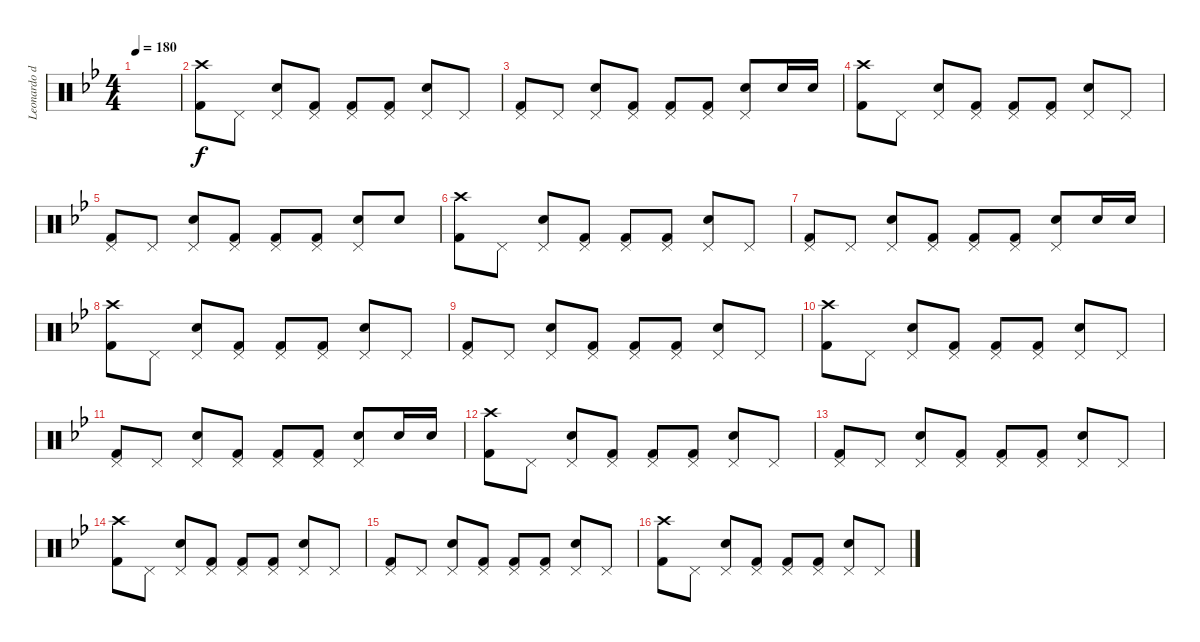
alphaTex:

\track ("Leonardo de Cecco" "Leonardo d") {instrument percussion}
\staff {score}
\articulation defaults
\ts (4 4)
\tempo 180
\clef neutral
\ks bb
|
("Crash high (hit)" "Kick (hit) 2").8 "Pedal Hi-Hat (hit)".8 ("Pedal Hi-Hat (hit)" "Snare (hit) 2").8 ("Pedal Hi-Hat (hit)" "Kick (hit) 2").8 ("Pedal Hi-Hat (hit)" "Kick (hit) 2").8 ("Pedal Hi-Hat (hit)" "Kick (hit) 2").8 ("Pedal Hi-Hat (hit)" "Snare (hit) 2").8 "Pedal Hi-Hat (hit)".8 |
("Pedal Hi-Hat (hit)" "Kick (hit) 2").8 "Pedal Hi-Hat (hit)".8 ("Pedal Hi-Hat (hit)" "Snare (hit) 2").8 ("Pedal Hi-Hat (hit)" "Kick (hit) 2").8 ("Pedal Hi-Hat (hit)" "Kick (hit) 2").8 ("Pedal Hi-Hat (hit)" "Kick (hit) 2").8 ("Pedal Hi-Hat (hit)" "Snare (hit) 2").8 "Snare (hit) 2".16 "Snare (hit) 2".16 |
("Crash high (hit)" "Kick (hit) 2").8 "Pedal Hi-Hat (hit)".8 ("Pedal Hi-Hat (hit)" "Snare (hit) 2").8 ("Pedal Hi-Hat (hit)" "Kick (hit) 2").8 ("Pedal Hi-Hat (hit)" "Kick (hit) 2").8 ("Pedal Hi-Hat (hit)" "Kick (hit) 2").8 ("Pedal Hi-Hat (hit)" "Snare (hit) 2").8 "Pedal Hi-Hat (hit)".8 |
("Pedal Hi-Hat (hit)" "Kick (hit) 2").8 "Pedal Hi-Hat (hit)".8 ("Pedal Hi-Hat (hit)" "Snare (hit) 2").8 ("Pedal Hi-Hat (hit)" "Kick (hit) 2").8 ("Pedal Hi-Hat (hit)" "Kick (hit) 2").8 ("Pedal Hi-Hat (hit)" "Kick (hit) 2").8 ("Pedal Hi-Hat (hit)" "Snare (hit) 2").8 "Snare (hit) 2".8 |
("Crash high (hit)" "Kick (hit) 2").8 "Pedal Hi-Hat (hit)".8 ("Pedal Hi-Hat (hit)" "Snare (hit) 2").8 ("Pedal Hi-Hat (hit)" "Kick (hit) 2").8 ("Pedal Hi-Hat (hit)" "Kick (hit) 2").8 ("Pedal Hi-Hat (hit)" "Kick (hit) 2").8 ("Pedal Hi-Hat (hit)" "Snare (hit) 2").8 "Pedal Hi-Hat (hit)".8 |
("Pedal Hi-Hat (hit)" "Kick (hit) 2").8 "Pedal Hi-Hat (hit)".8 ("Pedal Hi-Hat (hit)" "Snare (hit) 2").8 ("Pedal Hi-Hat (hit)" "Kick (hit) 2").8 ("Pedal Hi-Hat (hit)" "Kick (hit) 2").8 ("Pedal Hi-Hat (hit)" "Kick (hit) 2").8 ("Pedal Hi-Hat (hit)" "Snare (hit) 2").8 "Snare (hit) 2".16 "Snare (hit) 2".16 |
("Crash high (hit)" "Kick (hit) 2").8 "Pedal Hi-Hat (hit)".8 ("Pedal Hi-Hat (hit)" "Snare (hit) 2").8 ("Pedal Hi-Hat (hit)" "Kick (hit) 2").8 ("Pedal Hi-Hat (hit)" "Kick (hit) 2").8 ("Pedal Hi-Hat (hit)" "Kick (hit) 2").8 ("Pedal Hi-Hat (hit)" "Snare (hit) 2").8 "Pedal Hi-Hat (hit)".8 |
("Pedal Hi-Hat (hit)" "Kick (hit) 2").8 "Pedal Hi-Hat (hit)".8 ("Pedal Hi-Hat (hit)" "Snare (hit) 2").8 ("Pedal Hi-Hat (hit)" "Kick (hit) 2").8 ("Pedal Hi-Hat (hit)" "Kick (hit) 2").8 ("Pedal Hi-Hat (hit)" "Kick (hit) 2").8 ("Pedal Hi-Hat (hit)" "Snare (hit) 2").8 "Pedal Hi-Hat (hit)".8 |
("Crash high (hit)" "Kick (hit) 2").8 "Pedal Hi-Hat (hit)".8 ("Pedal Hi-Hat (hit)" "Snare (hit) 2").8 ("Pedal Hi-Hat (hit)" "Kick (hit) 2").8 ("Pedal Hi-Hat (hit)" "Kick (hit) 2").8 ("Pedal Hi-Hat (hit)" "Kick (hit) 2").8 ("Pedal Hi-Hat (hit)" "Snare (hit) 2").8 "Pedal Hi-Hat (hit)".8 |
("Pedal Hi-Hat (hit)" "Kick (hit) 2").8 "Pedal Hi-Hat (hit)".8 ("Pedal Hi-Hat (hit)" "Snare (hit) 2").8 ("Pedal Hi-Hat (hit)" "Kick (hit) 2").8 ("Pedal Hi-Hat (hit)" "Kick (hit) 2").8 ("Pedal Hi-Hat (hit)" "Kick (hit) 2").8 ("Pedal Hi-Hat (hit)" "Snare (hit) 2").8 "Snare (hit) 2".16 "Snare (hit) 2".16 |
("Crash high (hit)" "Kick (hit) 2").8 "Pedal Hi-Hat (hit)".8 ("Pedal Hi-Hat (hit)" "Snare (hit) 2").8 ("Pedal Hi-Hat (hit)" "Kick (hit) 2").8 ("Pedal Hi-Hat (hit)" "Kick (hit) 2").8 ("Pedal Hi-Hat (hit)" "Kick (hit) 2").8 ("Pedal Hi-Hat (hit)" "Snare (hit) 2").8 "Pedal Hi-Hat (hit)".8 |
("Pedal Hi-Hat (hit)" "Kick (hit) 2").8 "Pedal Hi-Hat (hit)".8 ("Pedal Hi-Hat (hit)" "Snare (hit) 2").8 ("Pedal Hi-Hat (hit)" "Kick (hit) 2").8 ("Pedal Hi-Hat (hit)" "Kick (hit) 2").8 ("Pedal Hi-Hat (hit)" "Kick (hit) 2").8 ("Pedal Hi-Hat (hit)" "Snare (hit) 2").8 "Pedal Hi-Hat (hit)".8 |
("Crash high (hit)" "Kick (hit) 2").8 "Pedal Hi-Hat (hit)".8 ("Pedal Hi-Hat (hit)" "Snare (hit) 2").8 ("Pedal Hi-Hat (hit)" "Kick (hit) 2").8 ("Pedal Hi-Hat (hit)" "Kick (hit) 2").8 ("Pedal Hi-Hat (hit)" "Kick (hit) 2").8 ("Pedal Hi-Hat (hit)" "Snare (hit) 2").8 "Pedal Hi-Hat (hit)".8 |
("Pedal Hi-Hat (hit)" "Kick (hit) 2").8 "Pedal Hi-Hat (hit)".8 ("Pedal Hi-Hat (hit)" "Snare (hit) 2").8 ("Pedal Hi-Hat (hit)" "Kick (hit) 2").8 ("Pedal Hi-Hat (hit)" "Kick (hit) 2").8 ("Pedal Hi-Hat (hit)" "Kick (hit) 2").8 ("Pedal Hi-Hat (hit)" "Snare (hit) 2").8 "Pedal Hi-Hat (hit)".8 |
("Crash high (hit)" "Kick (hit) 2").8 "Pedal Hi-Hat (hit)".8 ("Pedal Hi-Hat (hit)" "Snare (hit) 2").8 ("Pedal Hi-Hat (hit)" "Kick (hit) 2").8 ("Pedal Hi-Hat (hit)" "Kick (hit) 2").8 ("Pedal Hi-Hat (hit)" "Kick (hit) 2").8 ("Pedal Hi-Hat (hit)" "Snare (hit) 2").8 "Pedal Hi-Hat (hit)".8
